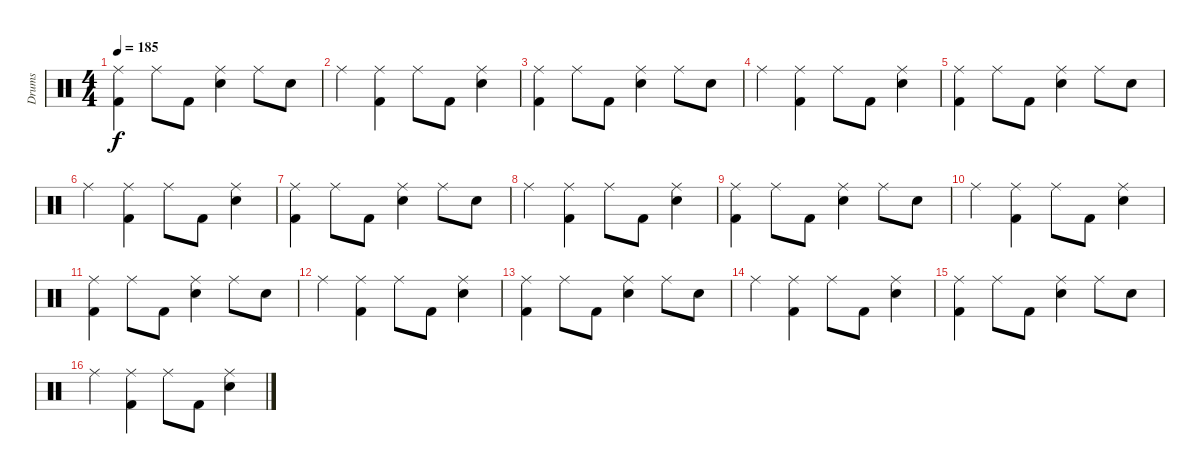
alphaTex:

\track ("Drums" "Drums") {instrument percussion}
\staff {score}
\articulation defaults
\ts (4 4)
\tempo 185
\clef neutral
\ks c
("Ride (middle)" "Kick (hit) 2").4{dy f} "Ride (middle)".8 "Kick (hit) 2".8 ("Ride (middle)" "Electric Snare (hit)").4 "Ride (middle)".8 "Electric Snare (hit)".8 |
"Ride (middle)".4 ("Ride (middle)" "Kick (hit) 2").4 "Ride (middle)".8 "Kick (hit) 2".8 ("Ride (middle)" "Electric Snare (hit)").4 |
("Ride (middle)" "Kick (hit) 2").4 "Ride (middle)".8 "Kick (hit) 2".8 ("Ride (middle)" "Electric Snare (hit)").4 "Ride (middle)".8 "Electric Snare (hit)".8 |
"Ride (middle)".4 ("Ride (middle)" "Kick (hit) 2").4 "Ride (middle)".8 "Kick (hit) 2".8 ("Ride (middle)" "Electric Snare (hit)").4 |
("Ride (middle)" "Kick (hit) 2").4 "Ride (middle)".8 "Kick (hit) 2".8 ("Ride (middle)" "Electric Snare (hit)").4 "Ride (middle)".8 "Electric Snare (hit)".8 |
"Ride (middle)".4 ("Ride (middle)" "Kick (hit) 2").4 "Ride (middle)".8 "Kick (hit) 2".8 ("Ride (middle)" "Electric Snare (hit)").4 |
("Ride (middle)" "Kick (hit) 2").4 "Ride (middle)".8 "Kick (hit) 2".8 ("Ride (middle)" "Electric Snare (hit)").4 "Ride (middle)".8 "Electric Snare (hit)".8 |
"Ride (middle)".4 ("Ride (middle)" "Kick (hit) 2").4 "Ride (middle)".8 "Kick (hit) 2".8 ("Ride (middle)" "Electric Snare (hit)").4 |
("Ride (middle)" "Kick (hit) 2").4 "Ride (middle)".8 "Kick (hit) 2".8 ("Ride (middle)" "Electric Snare (hit)").4 "Ride (middle)".8 "Electric Snare (hit)".8 |
"Ride (middle)".4 ("Ride (middle)" "Kick (hit) 2").4 "Ride (middle)".8 "Kick (hit) 2".8 ("Ride (middle)" "Electric Snare (hit)").4 |
("Ride (middle)" "Kick (hit) 2").4 "Ride (middle)".8 "Kick (hit) 2".8 ("Ride (middle)" "Electric Snare (hit)").4 "Ride (middle)".8 "Electric Snare (hit)".8 |
"Ride (middle)".4 ("Ride (middle)" "Kick (hit) 2").4 "Ride (middle)".8 "Kick (hit) 2".8 ("Ride (middle)" "Electric Snare (hit)").4 |
("Ride (middle)" "Kick (hit) 2").4 "Ride (middle)".8 "Kick (hit) 2".8 ("Ride (middle)" "Electric Snare (hit)").4 "Ride (middle)".8 "Electric Snare (hit)".8 |
"Ride (middle)".4 ("Ride (middle)" "Kick (hit) 2").4 "Ride (middle)".8 "Kick (hit) 2".8 ("Ride (middle)" "Electric Snare (hit)").4 |
("Ride (middle)" "Kick (hit) 2").4 "Ride (middle)".8 "Kick (hit) 2".8 ("Ride (middle)" "Electric Snare (hit)").4 "Ride (middle)".8 "Electric Snare (hit)".8 |
"Ride (middle)".4 ("Ride (middle)" "Kick (hit) 2").4 "Ride (middle)".8 "Kick (hit) 2".8 ("Ride (middle)" "Electric Snare (hit)").4
